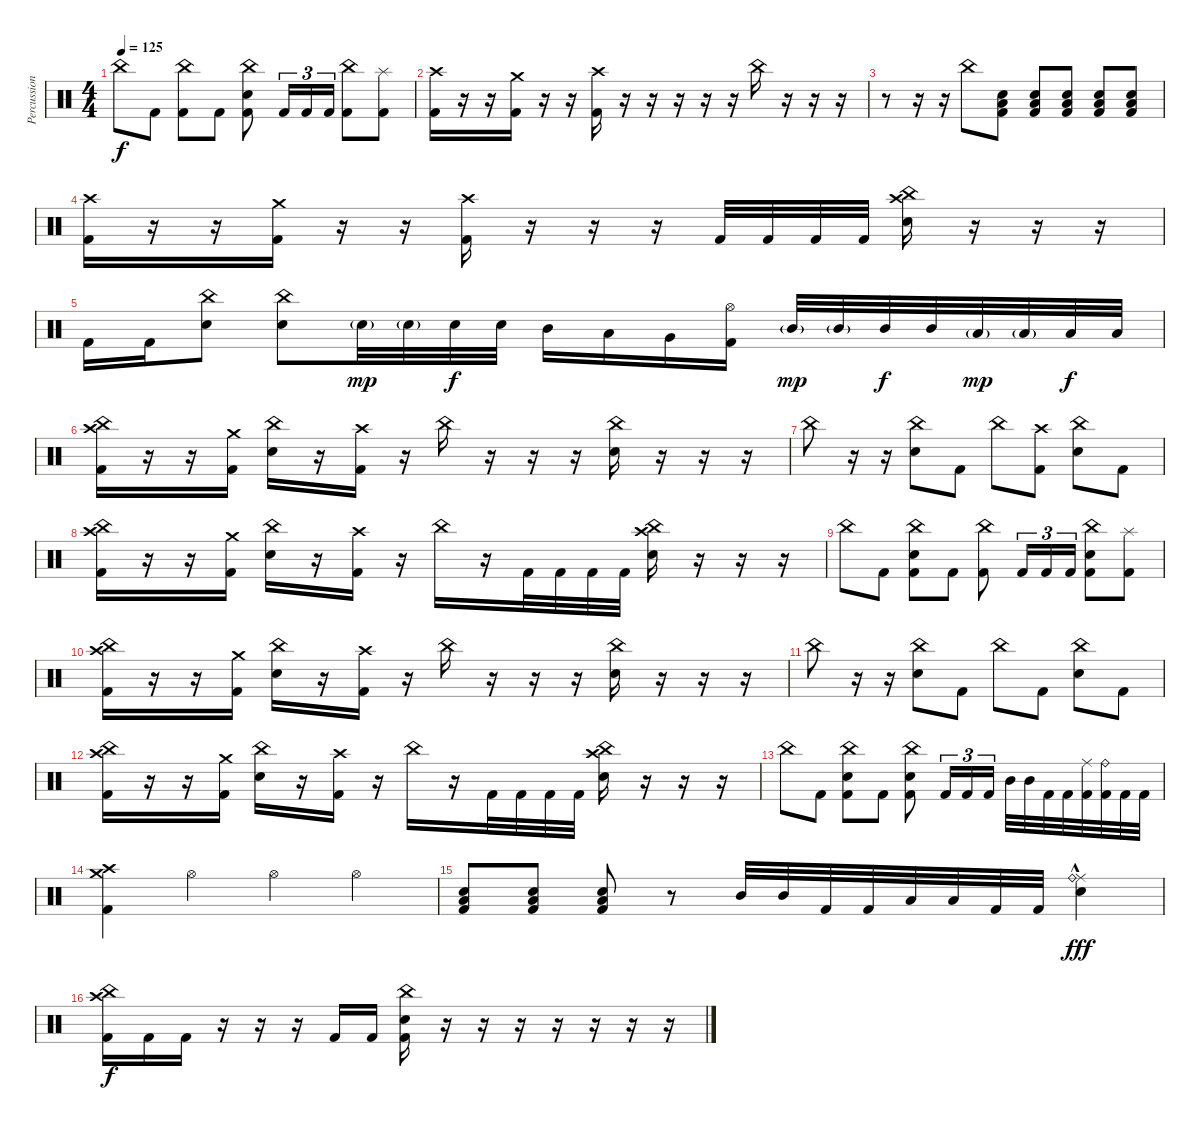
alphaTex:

\track ("Percussion" "Percussion") {instrument percussion}
\staff {score}
\articulation defaults
\ts (4 4)
\tempo 125
\clef neutral
\ks c "China (hit)".8{dy f} "Kick (hit) 2".8
("China (hit)" "Kick (hit) 2").8 "Kick (hit) 2".8 ("China (hit)" "Electric Snare (hit)" "Kick (hit) 2").8 "Kick (hit) 2".16{tu (3 2)} "Kick (hit) 2".16{tu (3 2)} "Kick (hit) 2".16{tu (3 2)} ("China (hit)" "Kick (hit) 2").8 ("Splash (hit)" "Kick (hit) 2").8 |
("Crash high (hit)" "Kick (hit) 2").16 r.16 r.16 ("Crash medium (hit)" "Kick (hit) 2").16 r.16 r.16 ("Crash high (hit)" "Kick (hit) 2").16 r.16 r.16 r.16 r.16 r.16 "China (hit)".16 r.16 r.16 r.16 |
r.8 r.16 r.16 "China (hit)".8 ("Low Floor Tom (hit)" "Electric Snare (hit)" "Kick (hit) 2").8 ("Low Floor Tom (hit)" "Electric Snare (hit)" "Kick (hit) 2").8 ("Low Floor Tom (hit)" "Electric Snare (hit)" "Kick (hit) 2").8 ("Low Floor Tom (hit)" "Electric Snare (hit)" "Kick (hit) 2").8 ("Low Floor Tom (hit)" "Electric Snare (hit)" "Kick (hit) 2").8 |
("Crash high (hit)" "Kick (hit) 2").16 r.16 r.16 ("Crash medium (hit)" "Kick (hit) 2").16 r.16 r.16 ("Crash high (hit)" "Kick (hit) 2").16 r.16 r.16 r.16 "Kick (hit) 2".32 "Kick (hit) 2".32 "Kick (hit) 2".32 "Kick (hit) 2".32 ("Crash high (hit)" "China (hit)" "Electric Snare (hit)").16 r.16 r.16 r.16 |
"Kick (hit) 2".16 "Kick (hit) 2".16 ("China (hit)" "Electric Snare (hit)").8 ("China (hit)" "Electric Snare (hit)").8 "Electric Snare (hit)"{g}.32{dy mp} "Electric Snare (hit)"{g}.32 "Electric Snare (hit)".32{dy f} "Electric Snare (hit)".32 "Mid Tom (hit)".16 "Low Tom (hit)".16 "Very Low Tom (hit)".16 ("Hi-Hat (open)" "Kick (hit) 2").16 "Mid Tom (hit)"{g}.32{dy mp} "Mid Tom (hit)"{g}.32 "Mid Tom (hit)".32{dy f} "Mid Tom (hit)".32 "Low Tom (hit)"{g}.32{dy mp} "Low Tom (hit)"{g}.32 "Low Tom (hit)".32{dy f} "Low Tom (hit)".32 |
("Crash high (hit)" "China (hit)" "Kick (hit) 2").16 r.16 r.16 ("Crash medium (hit)" "Kick (hit) 2").16 ("China (hit)" "Electric Snare (hit)").16 r.16 ("Crash high (hit)" "Kick (hit) 2").16 r.16 "China (hit)".16 r.16 r.16 r.16 ("China (hit)" "Electric Snare (hit)").16 r.16 r.16 r.16 |
"China (hit)".8 r.16 r.16 ("China (hit)" "Electric Snare (hit)").8 "Kick (hit) 2".8 "China (hit)".8 ("Crash high (hit)" "Kick (hit) 2").8 ("China (hit)" "Electric Snare (hit)").8 "Kick (hit) 2".8 |
("Crash high (hit)" "China (hit)" "Kick (hit) 2").16 r.16 r.16 ("Crash medium (hit)" "Kick (hit) 2").16 ("China (hit)" "Electric Snare (hit)").16 r.16 ("Crash high (hit)" "Kick (hit) 2").16 r.16 "China (hit)".16 r.16 "Kick (hit) 2".32 "Kick (hit) 2".32 "Kick (hit) 2".32 "Kick (hit) 2".32 ("Crash high (hit)" "China (hit)" "Electric Snare (hit)").16 r.16 r.16 r.16 |
"China (hit)".8 "Kick (hit) 2".8 ("China (hit)" "Electric Snare (hit)" "Kick (hit) 2").8 "Kick (hit) 2".8 ("China (hit)" "Kick (hit) 2").8 "Kick (hit) 2".16{tu (3 2)} "Kick (hit) 2".16{tu (3 2)} "Kick (hit) 2".16{tu (3 2)} ("China (hit)" "Electric Snare (hit)" "Kick (hit) 2").8 ("Splash (hit)" "Kick (hit) 2").8 |
("Crash high (hit)" "China (hit)" "Kick (hit) 2").16 r.16 r.16 ("Crash medium (hit)" "Kick (hit) 2").16 ("China (hit)" "Electric Snare (hit)").16 r.16 ("Crash high (hit)" "Kick (hit) 2").16 r.16 "China (hit)".16 r.16 r.16 r.16 ("China (hit)" "Electric Snare (hit)").16 r.16 r.16 r.16 |
"China (hit)".8 r.16 r.16 ("China (hit)" "Electric Snare (hit)").8 "Kick (hit) 2".8 "China (hit)".8 "Kick (hit) 2".8 ("China (hit)" "Electric Snare (hit)").8 "Kick (hit) 2".8 |
("Crash high (hit)" "China (hit)" "Kick (hit) 2").16 r.16 r.16 ("Crash medium (hit)" "Kick (hit) 2").16 ("China (hit)" "Electric Snare (hit)").16 r.16 ("Crash high (hit)" "Kick (hit) 2").16 r.16 "China (hit)".16 r.16 "Kick (hit) 2".32 "Kick (hit) 2".32 "Kick (hit) 2".32 "Kick (hit) 2".32 ("Crash high (hit)" "China (hit)" "Electric Snare (hit)").16 r.16 r.16 r.16 |
"China (hit)".8 "Kick (hit) 2".8 ("China (hit)" "Electric Snare (hit)" "Kick (hit) 2").8 "Kick (hit) 2".8 ("China (hit)" "Electric Snare (hit)" "Kick (hit) 2").8 "Kick (hit) 2".16{tu (3 2)} "Kick (hit) 2".16{tu (3 2)} "Kick (hit) 2".16{tu (3 2)} "Mid Tom (hit)".32 "Mid Tom (hit)".32 "Kick (hit) 2".32 "Kick (hit) 2".32 ("Ride (middle)" "Kick (hit) 2").32 ("Ride (bell)" "Kick (hit) 2").32 "Kick (hit) 2".32 "Kick (hit) 2".32 |
("Crash high (hit)" "Crash medium (hit)" "Kick (hit) 2").4 "Hi-Hat (open)".4 "Hi-Hat (open)".4 "Hi-Hat (open)".4 |
("Electric Snare (hit)" "Low Floor Tom (hit)" "Kick (hit) 2").8 ("Electric Snare (hit)" "Low Floor Tom (hit)" "Kick (hit) 2").8 ("Electric Snare (hit)" "Low Floor Tom (hit)" "Kick (hit) 2").8 r.8 "Mid Tom (hit)".32 "Mid Tom (hit)".32 "Kick (hit) 2".32 "Kick (hit) 2".32 "Low Tom (hit)".32 "Low Tom (hit)".32 "Kick (hit) 2".32 "Kick (hit) 2".32 ("Ride (middle)" "Ride (bell)"{hac} "Electric Snare (hit)").4{dy fff} |
("China (hit)" "Crash high (hit)" "Kick (hit) 2").16{dy f} "Kick (hit) 2".16 "Kick (hit) 2".16 r.16 r.16 r.16 "Kick (hit) 2".16 "Kick (hit) 2".16 ("China (hit)" "Electric Snare (hit)" "Kick (hit) 2").16 r.16 r.16 r.16 r.16 r.16 r.16 r.16
